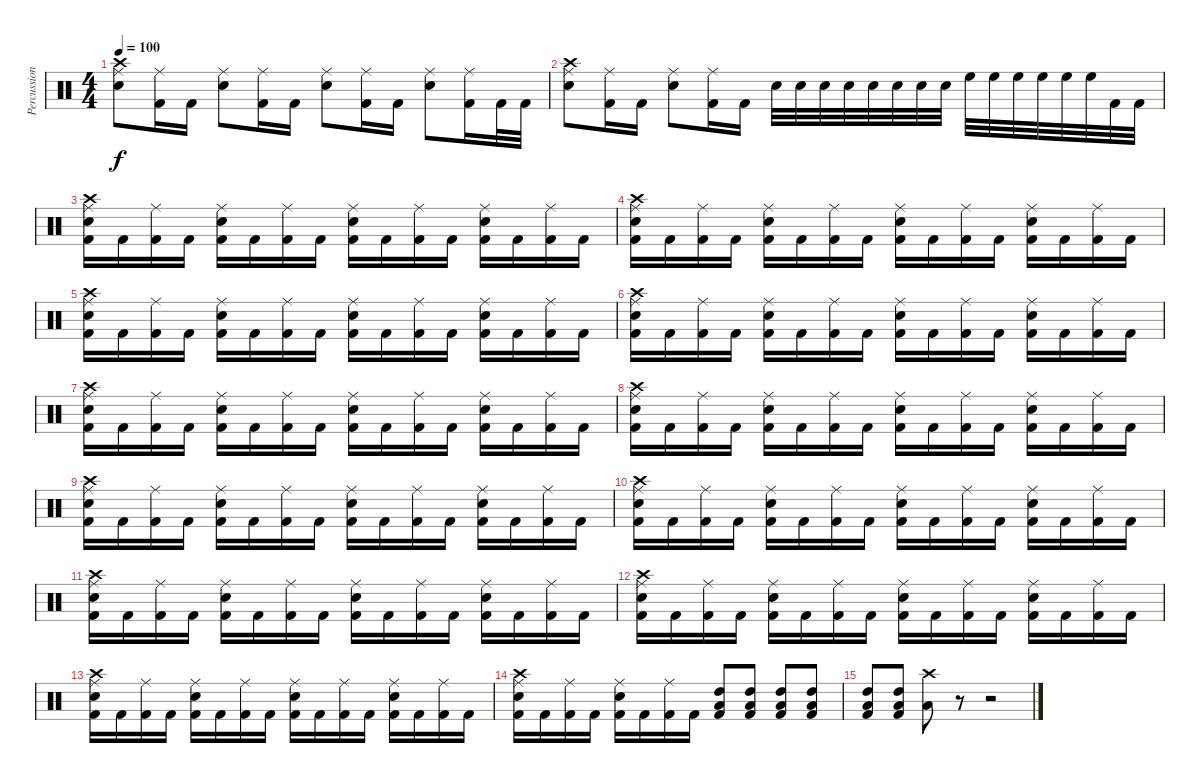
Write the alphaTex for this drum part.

\track ("Percussion" "Percussion") {instrument percussion}
\staff {score}
\articulation defaults
\ts (4 4)
\tempo 100
\clef neutral
\ks c
("Crash high (hit)" "Ride (middle)" "Snare (hit) 2").8{dy f} ("Ride (middle)" "Kick (hit) 2").16 "Kick (hit) 2".16 ("Ride (middle)" "Snare (hit) 2").8 ("Ride (middle)" "Kick (hit) 2").16 "Kick (hit) 2".16 ("Ride (middle)" "Snare (hit) 2").8 ("Ride (middle)" "Kick (hit) 2").16 "Kick (hit) 2".16 ("Ride (middle)" "Snare (hit) 2").8 ("Ride (middle)" "Kick (hit) 2").16 "Kick (hit) 2".32 "Kick (hit) 2".32 |
("Crash high (hit)" "Ride (middle)" "Snare (hit) 2").8 ("Ride (middle)" "Kick (hit) 2").16 "Kick (hit) 2".16 ("Ride (middle)" "Snare (hit) 2").8 ("Ride (middle)" "Kick (hit) 2").16 "Kick (hit) 2".16 "Snare (hit) 2".32 "Snare (hit) 2".32 "Snare (hit) 2".32 "Snare (hit) 2".32 "Snare (hit) 2".32 "Snare (hit) 2".32 "Snare (hit) 2".32 "Snare (hit) 2".32 "High Floor Tom (hit)".32 "High Floor Tom (hit)".32 "High Floor Tom (hit)".32 "High Floor Tom (hit)".32 "High Floor Tom (hit)".32 "High Floor Tom (hit)".32 "Kick (hit) 2".32 "Kick (hit) 2".32 |
("Crash high (hit)" "Ride (middle)" "Snare (hit) 2" "Kick (hit) 2").16 "Kick (hit) 2".16 ("Ride (middle)" "Kick (hit) 2").16 "Kick (hit) 2".16 ("Ride (middle)" "Snare (hit) 2" "Kick (hit) 2").16 "Kick (hit) 2".16 ("Ride (middle)" "Kick (hit) 2").16 "Kick (hit) 2".16 ("Ride (middle)" "Snare (hit) 2" "Kick (hit) 2").16 "Kick (hit) 2".16 ("Ride (middle)" "Kick (hit) 2").16 "Kick (hit) 2".16 ("Ride (middle)" "Snare (hit) 2" "Kick (hit) 2").16 "Kick (hit) 2".16 ("Ride (middle)" "Kick (hit) 2").16 "Kick (hit) 2".16 |
("Crash high (hit)" "Ride (middle)" "Snare (hit) 2" "Kick (hit) 2").16 "Kick (hit) 2".16 ("Ride (middle)" "Kick (hit) 2").16 "Kick (hit) 2".16 ("Ride (middle)" "Snare (hit) 2" "Kick (hit) 2").16 "Kick (hit) 2".16 ("Ride (middle)" "Kick (hit) 2").16 "Kick (hit) 2".16 ("Ride (middle)" "Snare (hit) 2" "Kick (hit) 2").16 "Kick (hit) 2".16 ("Ride (middle)" "Kick (hit) 2").16 "Kick (hit) 2".16 ("Ride (middle)" "Snare (hit) 2" "Kick (hit) 2").16 "Kick (hit) 2".16 ("Ride (middle)" "Kick (hit) 2").16 "Kick (hit) 2".16 |
("Crash high (hit)" "Ride (middle)" "Snare (hit) 2" "Kick (hit) 2").16 "Kick (hit) 2".16 ("Ride (middle)" "Kick (hit) 2").16 "Kick (hit) 2".16 ("Ride (middle)" "Snare (hit) 2" "Kick (hit) 2").16 "Kick (hit) 2".16 ("Ride (middle)" "Kick (hit) 2").16 "Kick (hit) 2".16 ("Ride (middle)" "Snare (hit) 2" "Kick (hit) 2").16 "Kick (hit) 2".16 ("Ride (middle)" "Kick (hit) 2").16 "Kick (hit) 2".16 ("Ride (middle)" "Snare (hit) 2" "Kick (hit) 2").16 "Kick (hit) 2".16 ("Ride (middle)" "Kick (hit) 2").16 "Kick (hit) 2".16 |
("Crash high (hit)" "Ride (middle)" "Snare (hit) 2" "Kick (hit) 2").16 "Kick (hit) 2".16 ("Ride (middle)" "Kick (hit) 2").16 "Kick (hit) 2".16 ("Ride (middle)" "Snare (hit) 2" "Kick (hit) 2").16 "Kick (hit) 2".16 ("Ride (middle)" "Kick (hit) 2").16 "Kick (hit) 2".16 ("Ride (middle)" "Snare (hit) 2" "Kick (hit) 2").16 "Kick (hit) 2".16 ("Ride (middle)" "Kick (hit) 2").16 "Kick (hit) 2".16 ("Ride (middle)" "Snare (hit) 2" "Kick (hit) 2").16 "Kick (hit) 2".16 ("Ride (middle)" "Kick (hit) 2").16 "Kick (hit) 2".16 |
("Crash high (hit)" "Ride (middle)" "Snare (hit) 2" "Kick (hit) 2").16 "Kick (hit) 2".16 ("Ride (middle)" "Kick (hit) 2").16 "Kick (hit) 2".16 ("Ride (middle)" "Snare (hit) 2" "Kick (hit) 2").16 "Kick (hit) 2".16 ("Ride (middle)" "Kick (hit) 2").16 "Kick (hit) 2".16 ("Ride (middle)" "Snare (hit) 2" "Kick (hit) 2").16 "Kick (hit) 2".16 ("Ride (middle)" "Kick (hit) 2").16 "Kick (hit) 2".16 ("Ride (middle)" "Snare (hit) 2" "Kick (hit) 2").16 "Kick (hit) 2".16 ("Ride (middle)" "Kick (hit) 2").16 "Kick (hit) 2".16 |
("Crash high (hit)" "Ride (middle)" "Snare (hit) 2" "Kick (hit) 2").16 "Kick (hit) 2".16 ("Ride (middle)" "Kick (hit) 2").16 "Kick (hit) 2".16 ("Ride (middle)" "Snare (hit) 2" "Kick (hit) 2").16 "Kick (hit) 2".16 ("Ride (middle)" "Kick (hit) 2").16 "Kick (hit) 2".16 ("Ride (middle)" "Snare (hit) 2" "Kick (hit) 2").16 "Kick (hit) 2".16 ("Ride (middle)" "Kick (hit) 2").16 "Kick (hit) 2".16 ("Ride (middle)" "Snare (hit) 2" "Kick (hit) 2").16 "Kick (hit) 2".16 ("Ride (middle)" "Kick (hit) 2").16 "Kick (hit) 2".16 |
("Crash high (hit)" "Ride (middle)" "Snare (hit) 2" "Kick (hit) 2").16 "Kick (hit) 2".16 ("Ride (middle)" "Kick (hit) 2").16 "Kick (hit) 2".16 ("Ride (middle)" "Snare (hit) 2" "Kick (hit) 2").16 "Kick (hit) 2".16 ("Ride (middle)" "Kick (hit) 2").16 "Kick (hit) 2".16 ("Ride (middle)" "Snare (hit) 2" "Kick (hit) 2").16 "Kick (hit) 2".16 ("Ride (middle)" "Kick (hit) 2").16 "Kick (hit) 2".16 ("Ride (middle)" "Snare (hit) 2" "Kick (hit) 2").16 "Kick (hit) 2".16 ("Ride (middle)" "Kick (hit) 2").16 "Kick (hit) 2".16 |
("Crash high (hit)" "Ride (middle)" "Snare (hit) 2" "Kick (hit) 2").16 "Kick (hit) 2".16 ("Ride (middle)" "Kick (hit) 2").16 "Kick (hit) 2".16 ("Ride (middle)" "Snare (hit) 2" "Kick (hit) 2").16 "Kick (hit) 2".16 ("Ride (middle)" "Kick (hit) 2").16 "Kick (hit) 2".16 ("Ride (middle)" "Snare (hit) 2" "Kick (hit) 2").16 "Kick (hit) 2".16 ("Ride (middle)" "Kick (hit) 2").16 "Kick (hit) 2".16 ("Ride (middle)" "Snare (hit) 2" "Kick (hit) 2").16 "Kick (hit) 2".16 ("Ride (middle)" "Kick (hit) 2").16 "Kick (hit) 2".16 |
("Crash high (hit)" "Ride (middle)" "Snare (hit) 2" "Kick (hit) 2").16 "Kick (hit) 2".16 ("Ride (middle)" "Kick (hit) 2").16 "Kick (hit) 2".16 ("Ride (middle)" "Snare (hit) 2" "Kick (hit) 2").16 "Kick (hit) 2".16 ("Ride (middle)" "Kick (hit) 2").16 "Kick (hit) 2".16 ("Ride (middle)" "Snare (hit) 2" "Kick (hit) 2").16 "Kick (hit) 2".16 ("Ride (middle)" "Kick (hit) 2").16 "Kick (hit) 2".16 ("Ride (middle)" "Snare (hit) 2" "Kick (hit) 2").16 "Kick (hit) 2".16 ("Ride (middle)" "Kick (hit) 2").16 "Kick (hit) 2".16 |
("Crash high (hit)" "Ride (middle)" "Snare (hit) 2" "Kick (hit) 2").16 "Kick (hit) 2".16 ("Ride (middle)" "Kick (hit) 2").16 "Kick (hit) 2".16 ("Ride (middle)" "Snare (hit) 2" "Kick (hit) 2").16 "Kick (hit) 2".16 ("Ride (middle)" "Kick (hit) 2").16 "Kick (hit) 2".16 ("Ride (middle)" "Snare (hit) 2" "Kick (hit) 2").16 "Kick (hit) 2".16 ("Ride (middle)" "Kick (hit) 2").16 "Kick (hit) 2".16 ("Ride (middle)" "Snare (hit) 2" "Kick (hit) 2").16 "Kick (hit) 2".16 ("Ride (middle)" "Kick (hit) 2").16 "Kick (hit) 2".16 |
("Crash high (hit)" "Ride (middle)" "Snare (hit) 2" "Kick (hit) 2").16 "Kick (hit) 2".16 ("Ride (middle)" "Kick (hit) 2").16 "Kick (hit) 2".16 ("Ride (middle)" "Snare (hit) 2" "Kick (hit) 2").16 "Kick (hit) 2".16 ("Ride (middle)" "Kick (hit) 2").16 "Kick (hit) 2".16 ("Ride (middle)" "Snare (hit) 2" "Kick (hit) 2").16 "Kick (hit) 2".16 ("Ride (middle)" "Kick (hit) 2").16 "Kick (hit) 2".16 ("Ride (middle)" "Snare (hit) 2" "Kick (hit) 2").16 "Kick (hit) 2".16 ("Ride (middle)" "Kick (hit) 2").16 "Kick (hit) 2".16 |
("Crash high (hit)" "Ride (middle)" "Snare (hit) 2" "Kick (hit) 2").16 "Kick (hit) 2".16 ("Ride (middle)" "Kick (hit) 2").16 "Kick (hit) 2".16 ("Ride (middle)" "Snare (hit) 2" "Kick (hit) 2").16 "Kick (hit) 2".16 ("Ride (middle)" "Kick (hit) 2").16 "Kick (hit) 2".16 ("Low Tom (hit)" "High Tom (hit)" "Kick (hit) 2").8 ("Low Tom (hit)" "High Tom (hit)" "Kick (hit) 2").8 ("Low Tom (hit)" "High Tom (hit)" "Kick (hit) 2").8 ("Low Tom (hit)" "High Tom (hit)" "Kick (hit) 2").8 |
("Low Tom (hit)" "High Tom (hit)" "Kick (hit) 2").8 ("Low Tom (hit)" "High Tom (hit)" "Kick (hit) 2").8 ("Crash high (hit)" "Low Tom (hit)").8 r.8 r.2
